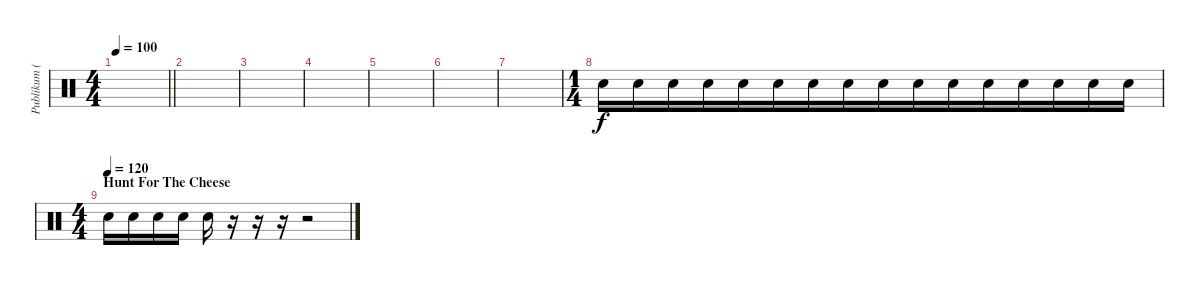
\track ("Publikum (klapper)" "Publikum (") {instrument percussion}
\staff {score}
\articulation defaults
\ts (4 4)
\tempo 100
\clef neutral
\barLineRight lightlight
\ks c
|
|
|
|
|
|
|
\ts (1 4)
"Hand Clap (hit)".16 "Hand Clap (hit)".16 "Hand Clap (hit)".16 "Hand Clap (hit)".16 "Hand Clap (hit)".16 "Hand Clap (hit)".16 "Hand Clap (hit)".16 "Hand Clap (hit)".16 "Hand Clap (hit)".16 "Hand Clap (hit)".16 "Hand Clap (hit)".16 "Hand Clap (hit)".16 "Hand Clap (hit)".16 "Hand Clap (hit)".16 "Hand Clap (hit)".16 "Hand Clap (hit)".16 |
\ts (4 4)
\section ("" "Hunt For The Cheese")
\tempo (120)
"Hand Clap (hit)".16 "Hand Clap (hit)".16 "Hand Clap (hit)".16 "Hand Clap (hit)".16 "Hand Clap (hit)".16 r.16 r.16 r.16 r.2
